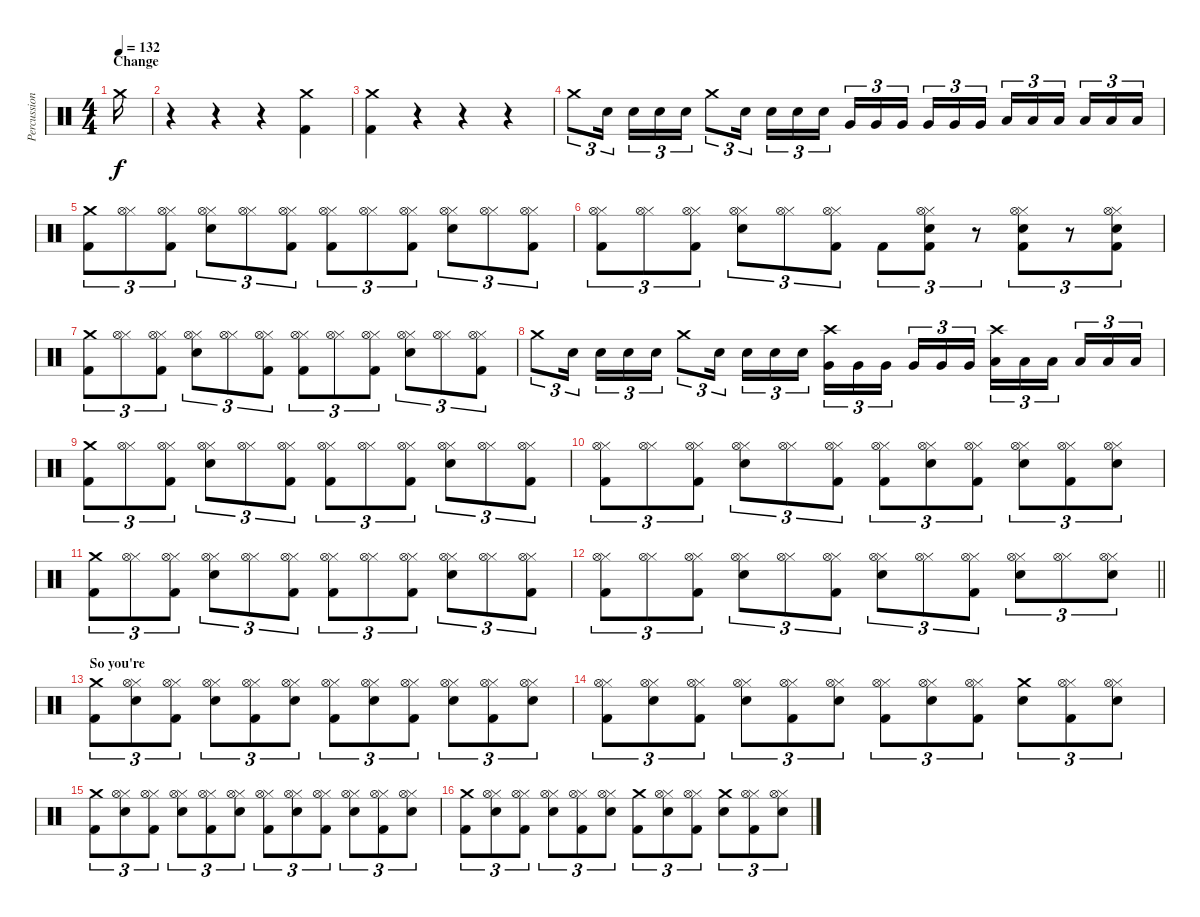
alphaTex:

\track ("Percussion" "Percussion") {instrument percussion}
\staff {score}
\articulation defaults
\ts (4 4)
\section ("" "Change")
\tempo 132
\clef neutral
\ks c "Crash medium (hit)".16{dy f}
|
r.4 r.4 r.4 ("Crash medium (hit)" "Kick (hit) 2").4 |
("Crash medium (hit)" "Kick (hit) 2").4 r.4 r.4 r.4 |
"Crash medium (hit)".8{tu (3 2)} "Snare (hit) 2".16{tu (3 2)} "Snare (hit) 2".16{tu (3 2)} "Snare (hit) 2".16{tu (3 2)} "Snare (hit) 2".16{tu (3 2)} "Crash medium (hit)".8{tu (3 2)} "Snare (hit) 2".16{tu (3 2)} "Snare (hit) 2".16{tu (3 2)} "Snare (hit) 2".16{tu (3 2)} "Snare (hit) 2".16{tu (3 2)} "Very Low Tom (hit)".16{tu (3 2)} "Very Low Tom (hit)".16{tu (3 2)} "Very Low Tom (hit)".16{tu (3 2)} "Very Low Tom (hit)".16{tu (3 2)} "Very Low Tom (hit)".16{tu (3 2)} "Very Low Tom (hit)".16{tu (3 2)} "Low Floor Tom (hit)".16{tu (3 2)} "Low Floor Tom (hit)".16{tu (3 2)} "Low Floor Tom (hit)".16{tu (3 2)} "Low Floor Tom (hit)".16{tu (3 2)} "Low Floor Tom (hit)".16{tu (3 2)} "Low Floor Tom (hit)".16{tu (3 2)} |
("Crash medium (hit)" "Kick (hit) 2").8{tu (3 2)} ("Hi-Hat (closed)" "Hi-Hat (open)").8{tu (3 2)} ("Hi-Hat (closed)" "Kick (hit) 2" "Hi-Hat (open)").8{tu (3 2)} ("Hi-Hat (closed)" "Snare (hit) 2" "Hi-Hat (open)").8{tu (3 2)} ("Hi-Hat (closed)" "Hi-Hat (open)").8{tu (3 2)} ("Hi-Hat (closed)" "Kick (hit) 2" "Hi-Hat (open)").8{tu (3 2)} ("Hi-Hat (closed)" "Kick (hit) 2" "Hi-Hat (open)").8{tu (3 2)} ("Hi-Hat (closed)" "Hi-Hat (open)").8{tu (3 2)} ("Hi-Hat (closed)" "Kick (hit) 2" "Hi-Hat (open)").8{tu (3 2)} ("Hi-Hat (closed)" "Snare (hit) 2" "Hi-Hat (open)").8{tu (3 2)} ("Hi-Hat (closed)" "Hi-Hat (open)").8{tu (3 2)} ("Hi-Hat (closed)" "Kick (hit) 2" "Hi-Hat (open)").8{tu (3 2)} |
("Hi-Hat (closed)" "Kick (hit) 2" "Hi-Hat (open)").8{tu (3 2)} ("Hi-Hat (closed)" "Hi-Hat (open)").8{tu (3 2)} ("Hi-Hat (closed)" "Kick (hit) 2" "Hi-Hat (open)").8{tu (3 2)} ("Hi-Hat (closed)" "Snare (hit) 2" "Hi-Hat (open)").8{tu (3 2)} ("Hi-Hat (closed)" "Hi-Hat (open)").8{tu (3 2)} ("Hi-Hat (closed)" "Kick (hit) 2" "Hi-Hat (open)").8{tu (3 2)} "Kick (hit) 2".8{tu (3 2)} ("Hi-Hat (closed)" "Snare (hit) 2" "Kick (hit) 2" "Hi-Hat (open)").8{tu (3 2)} r.8{tu (3 2)} ("Hi-Hat (closed)" "Snare (hit) 2" "Kick (hit) 2" "Hi-Hat (open)").8{tu (3 2)} r.8{tu (3 2)} ("Hi-Hat (closed)" "Snare (hit) 2" "Kick (hit) 2" "Hi-Hat (open)").8{tu (3 2)} |
("Crash medium (hit)" "Kick (hit) 2").8{tu (3 2)} ("Hi-Hat (closed)" "Hi-Hat (open)").8{tu (3 2)} ("Hi-Hat (closed)" "Kick (hit) 2" "Hi-Hat (open)").8{tu (3 2)} ("Hi-Hat (closed)" "Snare (hit) 2" "Hi-Hat (open)").8{tu (3 2)} ("Hi-Hat (closed)" "Hi-Hat (open)").8{tu (3 2)} ("Hi-Hat (closed)" "Kick (hit) 2" "Hi-Hat (open)").8{tu (3 2)} ("Hi-Hat (closed)" "Kick (hit) 2" "Hi-Hat (open)").8{tu (3 2)} ("Hi-Hat (closed)" "Hi-Hat (open)").8{tu (3 2)} ("Hi-Hat (closed)" "Kick (hit) 2" "Hi-Hat (open)").8{tu (3 2)} ("Hi-Hat (closed)" "Snare (hit) 2" "Hi-Hat (open)").8{tu (3 2)} ("Hi-Hat (closed)" "Hi-Hat (open)").8{tu (3 2)} ("Hi-Hat (closed)" "Kick (hit) 2" "Hi-Hat (open)").8{tu (3 2)} |
"Crash medium (hit)".8{tu (3 2)} "Snare (hit) 2".16{tu (3 2)} "Snare (hit) 2".16{tu (3 2)} "Snare (hit) 2".16{tu (3 2)} "Snare (hit) 2".16{tu (3 2)} "Crash medium (hit)".8{tu (3 2)} "Snare (hit) 2".16{tu (3 2)} "Snare (hit) 2".16{tu (3 2)} "Snare (hit) 2".16{tu (3 2)} "Snare (hit) 2".16{tu (3 2)} ("Crash high (hit)" "Very Low Tom (hit)").16{tu (3 2)} "Very Low Tom (hit)".16{tu (3 2)} "Very Low Tom (hit)".16{tu (3 2)} "Very Low Tom (hit)".16{tu (3 2)} "Very Low Tom (hit)".16{tu (3 2)} "Very Low Tom (hit)".16{tu (3 2)} ("Crash high (hit)" "Low Floor Tom (hit)").16{tu (3 2)} "Low Floor Tom (hit)".16{tu (3 2)} "Low Floor Tom (hit)".16{tu (3 2)} "Low Floor Tom (hit)".16{tu (3 2)} "Low Floor Tom (hit)".16{tu (3 2)} "Low Floor Tom (hit)".16{tu (3 2)} |
("Crash medium (hit)" "Kick (hit) 2").8{tu (3 2)} ("Hi-Hat (closed)" "Hi-Hat (open)").8{tu (3 2)} ("Hi-Hat (closed)" "Kick (hit) 2" "Hi-Hat (open)").8{tu (3 2)} ("Hi-Hat (closed)" "Snare (hit) 2" "Hi-Hat (open)").8{tu (3 2)} ("Hi-Hat (closed)" "Hi-Hat (open)").8{tu (3 2)} ("Hi-Hat (closed)" "Kick (hit) 2" "Hi-Hat (open)").8{tu (3 2)} ("Hi-Hat (closed)" "Kick (hit) 2" "Hi-Hat (open)").8{tu (3 2)} ("Hi-Hat (closed)" "Hi-Hat (open)").8{tu (3 2)} ("Hi-Hat (closed)" "Kick (hit) 2" "Hi-Hat (open)").8{tu (3 2)} ("Hi-Hat (closed)" "Snare (hit) 2" "Hi-Hat (open)").8{tu (3 2)} ("Hi-Hat (closed)" "Hi-Hat (open)").8{tu (3 2)} ("Hi-Hat (closed)" "Kick (hit) 2" "Hi-Hat (open)").8{tu (3 2)} |
("Hi-Hat (closed)" "Kick (hit) 2" "Hi-Hat (open)").8{tu (3 2)} ("Hi-Hat (closed)" "Hi-Hat (open)").8{tu (3 2)} ("Hi-Hat (closed)" "Kick (hit) 2" "Hi-Hat (open)").8{tu (3 2)} ("Hi-Hat (closed)" "Snare (hit) 2" "Hi-Hat (open)").8{tu (3 2)} ("Hi-Hat (closed)" "Hi-Hat (open)").8{tu (3 2)} ("Hi-Hat (closed)" "Kick (hit) 2" "Hi-Hat (open)").8{tu (3 2)} ("Hi-Hat (closed)" "Kick (hit) 2" "Hi-Hat (open)").8{tu (3 2)} ("Hi-Hat (closed)" "Snare (hit) 2" "Hi-Hat (open)").8{tu (3 2)} ("Hi-Hat (closed)" "Kick (hit) 2" "Hi-Hat (open)").8{tu (3 2)} ("Hi-Hat (closed)" "Snare (hit) 2" "Hi-Hat (open)").8{tu (3 2)} ("Hi-Hat (closed)" "Kick (hit) 2" "Hi-Hat (open)").8{tu (3 2)} ("Hi-Hat (closed)" "Snare (hit) 2" "Hi-Hat (open)").8{tu (3 2)} |
("Crash medium (hit)" "Kick (hit) 2").8{tu (3 2)} ("Hi-Hat (closed)" "Hi-Hat (open)").8{tu (3 2)} ("Hi-Hat (closed)" "Kick (hit) 2" "Hi-Hat (open)").8{tu (3 2)} ("Hi-Hat (closed)" "Snare (hit) 2" "Hi-Hat (open)").8{tu (3 2)} ("Hi-Hat (closed)" "Hi-Hat (open)").8{tu (3 2)} ("Hi-Hat (closed)" "Kick (hit) 2" "Hi-Hat (open)").8{tu (3 2)} ("Hi-Hat (closed)" "Kick (hit) 2" "Hi-Hat (open)").8{tu (3 2)} ("Hi-Hat (closed)" "Hi-Hat (open)").8{tu (3 2)} ("Hi-Hat (closed)" "Kick (hit) 2" "Hi-Hat (open)").8{tu (3 2)} ("Hi-Hat (closed)" "Snare (hit) 2" "Hi-Hat (open)").8{tu (3 2)} ("Hi-Hat (closed)" "Hi-Hat (open)").8{tu (3 2)} ("Hi-Hat (closed)" "Kick (hit) 2" "Hi-Hat (open)").8{tu (3 2)} |
\barLineRight lightlight
("Hi-Hat (closed)" "Kick (hit) 2" "Hi-Hat (open)").8{tu (3 2)} ("Hi-Hat (closed)" "Hi-Hat (open)").8{tu (3 2)} ("Hi-Hat (closed)" "Kick (hit) 2" "Hi-Hat (open)").8{tu (3 2)} ("Hi-Hat (closed)" "Snare (hit) 2" "Hi-Hat (open)").8{tu (3 2)} ("Hi-Hat (closed)" "Hi-Hat (open)").8{tu (3 2)} ("Hi-Hat (closed)" "Kick (hit) 2" "Hi-Hat (open)").8{tu (3 2)} ("Hi-Hat (closed)" "Snare (hit) 2" "Hi-Hat (open)").8{tu (3 2)} ("Hi-Hat (closed)" "Hi-Hat (open)").8{tu (3 2)} ("Hi-Hat (closed)" "Kick (hit) 2" "Hi-Hat (open)").8{tu (3 2)} ("Hi-Hat (closed)" "Snare (hit) 2" "Hi-Hat (open)").8{tu (3 2)} ("Hi-Hat (closed)" "Hi-Hat (open)").8{tu (3 2)} ("Hi-Hat (closed)" "Snare (hit) 2" "Hi-Hat (open)").8{tu (3 2)} |
\section ("" "So you're")
("Crash medium (hit)" "Kick (hit) 2").8{tu (3 2)} ("Hi-Hat (closed)" "Snare (hit) 2" "Hi-Hat (open)").8{tu (3 2)} ("Hi-Hat (closed)" "Kick (hit) 2" "Hi-Hat (open)").8{tu (3 2)} ("Hi-Hat (closed)" "Snare (hit) 2" "Hi-Hat (open)").8{tu (3 2)} ("Hi-Hat (closed)" "Kick (hit) 2" "Hi-Hat (open)").8{tu (3 2)} ("Hi-Hat (closed)" "Snare (hit) 2" "Hi-Hat (open)").8{tu (3 2)} ("Hi-Hat (closed)" "Kick (hit) 2" "Hi-Hat (open)").8{tu (3 2)} ("Hi-Hat (closed)" "Snare (hit) 2" "Hi-Hat (open)").8{tu (3 2)} ("Hi-Hat (closed)" "Kick (hit) 2" "Hi-Hat (open)").8{tu (3 2)} ("Hi-Hat (closed)" "Snare (hit) 2" "Hi-Hat (open)").8{tu (3 2)} ("Hi-Hat (closed)" "Kick (hit) 2" "Hi-Hat (open)").8{tu (3 2)} ("Hi-Hat (closed)" "Snare (hit) 2" "Hi-Hat (open)").8{tu (3 2)} |
("Hi-Hat (closed)" "Kick (hit) 2" "Hi-Hat (open)").8{tu (3 2)} ("Hi-Hat (closed)" "Snare (hit) 2" "Hi-Hat (open)").8{tu (3 2)} ("Hi-Hat (closed)" "Kick (hit) 2" "Hi-Hat (open)").8{tu (3 2)} ("Hi-Hat (closed)" "Snare (hit) 2" "Hi-Hat (open)").8{tu (3 2)} ("Hi-Hat (closed)" "Kick (hit) 2" "Hi-Hat (open)").8{tu (3 2)} ("Hi-Hat (closed)" "Snare (hit) 2" "Hi-Hat (open)").8{tu (3 2)} ("Hi-Hat (closed)" "Kick (hit) 2" "Hi-Hat (open)").8{tu (3 2)} ("Hi-Hat (closed)" "Snare (hit) 2" "Hi-Hat (open)").8{tu (3 2)} ("Hi-Hat (closed)" "Kick (hit) 2" "Hi-Hat (open)").8{tu (3 2)} ("Crash medium (hit)" "Snare (hit) 2").8{tu (3 2)} ("Hi-Hat (closed)" "Kick (hit) 2" "Hi-Hat (open)").8{tu (3 2)} ("Hi-Hat (closed)" "Snare (hit) 2" "Hi-Hat (open)").8{tu (3 2)} |
("Crash medium (hit)" "Kick (hit) 2").8{tu (3 2)} ("Hi-Hat (closed)" "Snare (hit) 2" "Hi-Hat (open)").8{tu (3 2)} ("Hi-Hat (closed)" "Kick (hit) 2" "Hi-Hat (open)").8{tu (3 2)} ("Hi-Hat (closed)" "Snare (hit) 2" "Hi-Hat (open)").8{tu (3 2)} ("Hi-Hat (closed)" "Kick (hit) 2" "Hi-Hat (open)").8{tu (3 2)} ("Hi-Hat (closed)" "Snare (hit) 2" "Hi-Hat (open)").8{tu (3 2)} ("Hi-Hat (closed)" "Kick (hit) 2" "Hi-Hat (open)").8{tu (3 2)} ("Hi-Hat (closed)" "Snare (hit) 2" "Hi-Hat (open)").8{tu (3 2)} ("Hi-Hat (closed)" "Kick (hit) 2" "Hi-Hat (open)").8{tu (3 2)} ("Hi-Hat (closed)" "Snare (hit) 2" "Hi-Hat (open)").8{tu (3 2)} ("Hi-Hat (closed)" "Kick (hit) 2" "Hi-Hat (open)").8{tu (3 2)} ("Hi-Hat (closed)" "Snare (hit) 2" "Hi-Hat (open)").8{tu (3 2)} |
("Crash medium (hit)" "Kick (hit) 2").8{tu (3 2)} ("Hi-Hat (closed)" "Snare (hit) 2" "Hi-Hat (open)").8{tu (3 2)} ("Hi-Hat (closed)" "Kick (hit) 2" "Hi-Hat (open)").8{tu (3 2)} ("Hi-Hat (closed)" "Snare (hit) 2" "Hi-Hat (open)").8{tu (3 2)} ("Hi-Hat (closed)" "Kick (hit) 2" "Hi-Hat (open)").8{tu (3 2)} ("Hi-Hat (closed)" "Snare (hit) 2" "Hi-Hat (open)").8{tu (3 2)} ("Crash medium (hit)" "Kick (hit) 2").8{tu (3 2)} ("Hi-Hat (closed)" "Snare (hit) 2" "Hi-Hat (open)").8{tu (3 2)} ("Hi-Hat (closed)" "Kick (hit) 2" "Hi-Hat (open)").8{tu (3 2)} ("Crash medium (hit)" "Snare (hit) 2").8{tu (3 2)} ("Hi-Hat (closed)" "Kick (hit) 2" "Hi-Hat (open)").8{tu (3 2)} ("Hi-Hat (closed)" "Snare (hit) 2" "Hi-Hat (open)").8{tu (3 2)}
